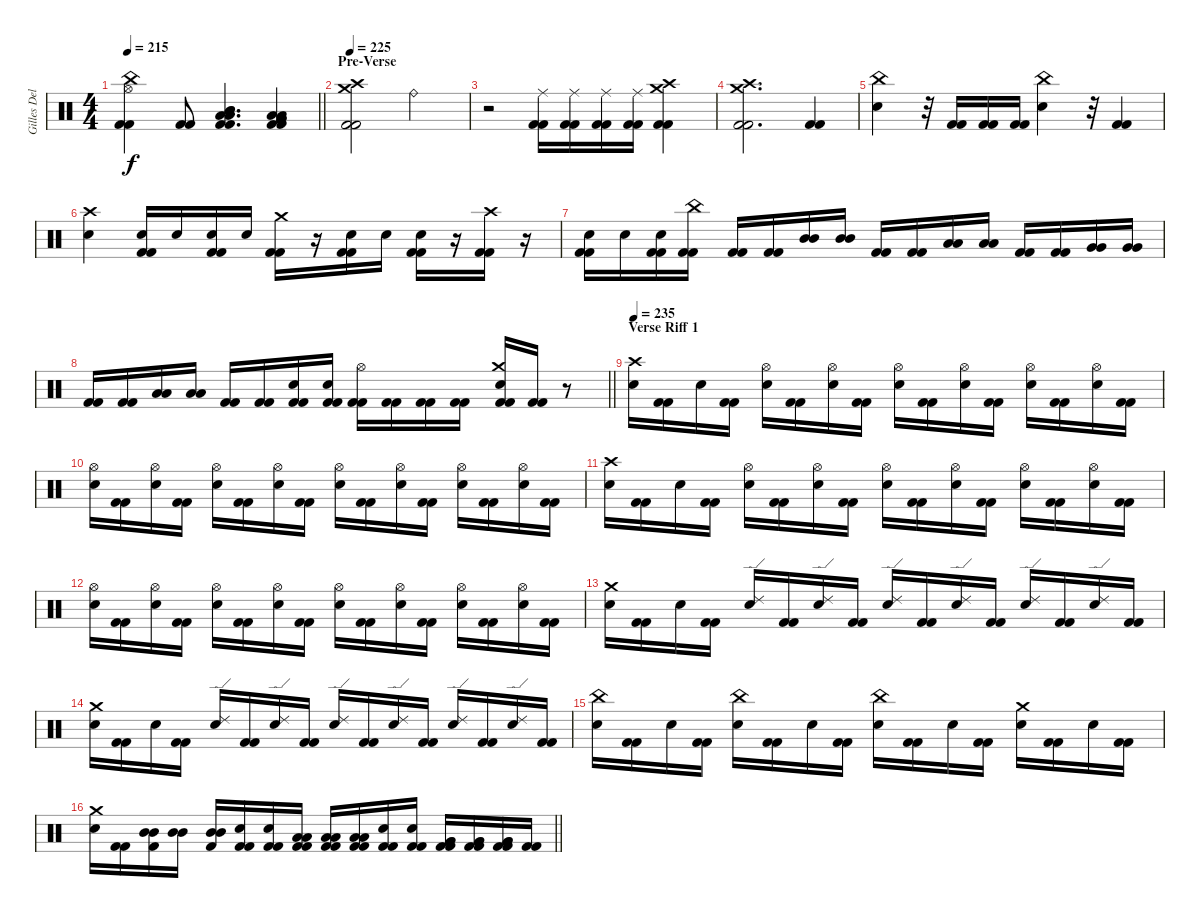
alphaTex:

\track ("Gilles Delecroix" "Gilles Del") {instrument percussion}
\staff {score}
\articulation defaults
\ts (4 4)
\tempo 215
\clef neutral
\barLineRight lightlight
\ks c
("China (hit)" "Hi-Hat (open)" "Kick (hit) 2" "Kick (hit) 2").4{dy f} ("Kick (hit) 2" "Kick (hit) 2").8 ("Low Tom (hit)" "Low Tom (hit)" "Mid Tom (hit)" "Mid Tom (hit)" "Kick (hit) 2" "Kick (hit) 2").4{d} ("Very Low Tom (hit)" "Very Low Tom (hit)" "Low Tom (hit)" "Low Tom (hit)" "Kick (hit) 2" "Kick (hit) 2").4 |
\section ("" "Pre-Verse")
\tempo 225
("Crash high (hit)" "Crash medium (hit)" "Kick (hit) 2" "Kick (hit) 2").2 "Ride (bell)".2 |
r.2 ("Ride (middle)" "Kick (hit) 2" "Kick (hit) 2").16 ("Ride (middle)" "Kick (hit) 2" "Kick (hit) 2").16 ("Ride (middle)" "Kick (hit) 2" "Kick (hit) 2").16 ("Ride (middle)" "Kick (hit) 2" "Kick (hit) 2").16 ("Crash high (hit)" "Crash medium (hit)" "Kick (hit) 2" "Kick (hit) 2").4 |
("Crash high (hit)" "Crash medium (hit)" "Kick (hit) 2" "Kick (hit) 2").2{d} ("Kick (hit) 2" "Kick (hit) 2").4 |
("China (hit)" "Electric Snare (hit)").4 r.32 ("Kick (hit) 2" "Kick (hit) 2").16 ("Kick (hit) 2" "Kick (hit) 2").16 ("Kick (hit) 2" "Kick (hit) 2").16 ("China (hit)" "Electric Snare (hit)").4 r.32 ("Kick (hit) 2" "Kick (hit) 2").4 |
("Crash high (hit)" "Electric Snare (hit)").4 ("Kick (hit) 2" "Electric Snare (hit)" "Kick (hit) 2").16 "Electric Snare (hit)".16 ("Kick (hit) 2" "Electric Snare (hit)" "Kick (hit) 2").16 "Electric Snare (hit)".16 ("Crash medium (hit)" "Kick (hit) 2" "Kick (hit) 2").16 r.16 ("Kick (hit) 2" "Electric Snare (hit)" "Kick (hit) 2").16 "Electric Snare (hit)".16 ("Kick (hit) 2" "Electric Snare (hit)" "Kick (hit) 2").16 r.16 ("Crash high (hit)" "Kick (hit) 2" "Kick (hit) 2").16 r.16 |
("Kick (hit) 2" "Electric Snare (hit)" "Kick (hit) 2").16 "Electric Snare (hit)".16 ("Kick (hit) 2" "Electric Snare (hit)" "Kick (hit) 2").16 ("China (hit)" "Kick (hit) 2" "Kick (hit) 2").16 ("Kick (hit) 2" "Kick (hit) 2").16 ("Kick (hit) 2" "Kick (hit) 2").16 ("Mid Tom (hit)" "Mid Tom (hit)").16 ("Mid Tom (hit)" "Mid Tom (hit)").16 ("Kick (hit) 2" "Kick (hit) 2").16 ("Kick (hit) 2" "Kick (hit) 2").16 ("Low Tom (hit)" "Low Tom (hit)").16 ("Low Tom (hit)" "Low Tom (hit)").16 ("Kick (hit) 2" "Kick (hit) 2").16 ("Kick (hit) 2" "Kick (hit) 2").16 ("Very Low Tom (hit)" "Very Low Tom (hit)").16 ("Very Low Tom (hit)" "Very Low Tom (hit)").16 |
\barLineRight lightlight
("Kick (hit) 2" "Kick (hit) 2").16 ("Kick (hit) 2" "Kick (hit) 2").16 ("Low Floor Tom (hit)" "Low Floor Tom (hit)").16 ("Low Floor Tom (hit)" "Low Floor Tom (hit)").16 ("Kick (hit) 2" "Kick (hit) 2").16 ("Kick (hit) 2" "Kick (hit) 2").16 ("Electric Snare (hit)" "Kick (hit) 2" "Kick (hit) 2").16 ("Electric Snare (hit)" "Kick (hit) 2" "Kick (hit) 2").16 ("Hi-Hat (open)" "Kick (hit) 2" "Kick (hit) 2").16 ("Kick (hit) 2" "Kick (hit) 2").16 ("Kick (hit) 2" "Kick (hit) 2").16 ("Kick (hit) 2" "Kick (hit) 2").16 ("Crash medium (hit)" "Electric Snare (hit)" "Kick (hit) 2" "Kick (hit) 2").16 ("Kick (hit) 2" "Kick (hit) 2").16 r.8 |
\section ("" "Verse Riff 1")
\tempo 235
("Crash high (hit)" "Electric Snare (hit)").16 ("Kick (hit) 2" "Kick (hit) 2").16 "Electric Snare (hit)".16 ("Kick (hit) 2" "Kick (hit) 2").16 ("Hi-Hat (open)" "Electric Snare (hit)").16 ("Kick (hit) 2" "Kick (hit) 2").16 ("Hi-Hat (open)" "Electric Snare (hit)").16 ("Kick (hit) 2" "Kick (hit) 2").16 ("Hi-Hat (open)" "Electric Snare (hit)").16 ("Kick (hit) 2" "Kick (hit) 2").16 ("Hi-Hat (open)" "Electric Snare (hit)").16 ("Kick (hit) 2" "Kick (hit) 2").16 ("Hi-Hat (open)" "Electric Snare (hit)").16 ("Kick (hit) 2" "Kick (hit) 2").16 ("Hi-Hat (open)" "Electric Snare (hit)").16 ("Kick (hit) 2" "Kick (hit) 2").16 |
("Hi-Hat (open)" "Electric Snare (hit)").16 ("Kick (hit) 2" "Kick (hit) 2").16 ("Hi-Hat (open)" "Electric Snare (hit)").16 ("Kick (hit) 2" "Kick (hit) 2").16 ("Hi-Hat (open)" "Electric Snare (hit)").16 ("Kick (hit) 2" "Kick (hit) 2").16 ("Hi-Hat (open)" "Electric Snare (hit)").16 ("Kick (hit) 2" "Kick (hit) 2").16 ("Hi-Hat (open)" "Electric Snare (hit)").16 ("Kick (hit) 2" "Kick (hit) 2").16 ("Hi-Hat (open)" "Electric Snare (hit)").16 ("Kick (hit) 2" "Kick (hit) 2").16 ("Hi-Hat (open)" "Electric Snare (hit)").16 ("Kick (hit) 2" "Kick (hit) 2").16 ("Hi-Hat (open)" "Electric Snare (hit)").16 ("Kick (hit) 2" "Kick (hit) 2").16 |
("Crash high (hit)" "Electric Snare (hit)").16 ("Kick (hit) 2" "Kick (hit) 2").16 "Electric Snare (hit)".16 ("Kick (hit) 2" "Kick (hit) 2").16 ("Hi-Hat (open)" "Electric Snare (hit)").16 ("Kick (hit) 2" "Kick (hit) 2").16 ("Hi-Hat (open)" "Electric Snare (hit)").16 ("Kick (hit) 2" "Kick (hit) 2").16 ("Hi-Hat (open)" "Electric Snare (hit)").16 ("Kick (hit) 2" "Kick (hit) 2").16 ("Hi-Hat (open)" "Electric Snare (hit)").16 ("Kick (hit) 2" "Kick (hit) 2").16 ("Hi-Hat (open)" "Electric Snare (hit)").16 ("Kick (hit) 2" "Kick (hit) 2").16 ("Hi-Hat (open)" "Electric Snare (hit)").16 ("Kick (hit) 2" "Kick (hit) 2").16 |
("Hi-Hat (open)" "Electric Snare (hit)").16 ("Kick (hit) 2" "Kick (hit) 2").16 ("Hi-Hat (open)" "Electric Snare (hit)").16 ("Kick (hit) 2" "Kick (hit) 2").16 ("Hi-Hat (open)" "Electric Snare (hit)").16 ("Kick (hit) 2" "Kick (hit) 2").16 ("Hi-Hat (open)" "Electric Snare (hit)").16 ("Kick (hit) 2" "Kick (hit) 2").16 ("Hi-Hat (open)" "Electric Snare (hit)").16 ("Kick (hit) 2" "Kick (hit) 2").16 ("Hi-Hat (open)" "Electric Snare (hit)").16 ("Kick (hit) 2" "Kick (hit) 2").16 ("Hi-Hat (open)" "Electric Snare (hit)").16 ("Kick (hit) 2" "Kick (hit) 2").16 ("Hi-Hat (open)" "Electric Snare (hit)").16 ("Kick (hit) 2" "Kick (hit) 2").16 |
("Crash medium (hit)" "Electric Snare (hit)").16 ("Kick (hit) 2" "Kick (hit) 2").16 "Electric Snare (hit)".16 ("Kick (hit) 2" "Kick (hit) 2").16 ("Ride (edge) 2" "Electric Snare (hit)").16 ("Kick (hit) 2" "Kick (hit) 2").16 ("Ride (edge) 2" "Electric Snare (hit)").16 ("Kick (hit) 2" "Kick (hit) 2").16 ("Ride (edge) 2" "Electric Snare (hit)").16 ("Kick (hit) 2" "Kick (hit) 2").16 ("Ride (edge) 2" "Electric Snare (hit)").16 ("Kick (hit) 2" "Kick (hit) 2").16 ("Ride (edge) 2" "Electric Snare (hit)").16 ("Kick (hit) 2" "Kick (hit) 2").16 ("Ride (edge) 2" "Electric Snare (hit)").16 ("Kick (hit) 2" "Kick (hit) 2").16 |
("Crash medium (hit)" "Electric Snare (hit)").16 ("Kick (hit) 2" "Kick (hit) 2").16 "Electric Snare (hit)".16 ("Kick (hit) 2" "Kick (hit) 2").16 ("Ride (edge) 2" "Electric Snare (hit)").16 ("Kick (hit) 2" "Kick (hit) 2").16 ("Ride (edge) 2" "Electric Snare (hit)").16 ("Kick (hit) 2" "Kick (hit) 2").16 ("Ride (edge) 2" "Electric Snare (hit)").16 ("Kick (hit) 2" "Kick (hit) 2").16 ("Ride (edge) 2" "Electric Snare (hit)").16 ("Kick (hit) 2" "Kick (hit) 2").16 ("Ride (edge) 2" "Electric Snare (hit)").16 ("Kick (hit) 2" "Kick (hit) 2").16 ("Ride (edge) 2" "Electric Snare (hit)").16 ("Kick (hit) 2" "Kick (hit) 2").16 |
("China (hit)" "Electric Snare (hit)").16 ("Kick (hit) 2" "Kick (hit) 2").16 "Electric Snare (hit)".16 ("Kick (hit) 2" "Kick (hit) 2").16 ("China (hit)" "Electric Snare (hit)").16 ("Kick (hit) 2" "Kick (hit) 2").16 "Electric Snare (hit)".16 ("Kick (hit) 2" "Kick (hit) 2").16 ("China (hit)" "Electric Snare (hit)").16 ("Kick (hit) 2" "Kick (hit) 2").16 "Electric Snare (hit)".16 ("Kick (hit) 2" "Kick (hit) 2").16 ("Crash medium (hit)" "Electric Snare (hit)").16 ("Kick (hit) 2" "Kick (hit) 2").16 "Electric Snare (hit)".16 ("Kick (hit) 2" "Kick (hit) 2").16 |
\barLineRight lightlight
("Crash medium (hit)" "Electric Snare (hit)").16 ("Kick (hit) 2" "Kick (hit) 2").16 ("Mid Tom (hit)" "Mid Tom (hit)" "Kick (hit) 2").16 ("Mid Tom (hit)" "Mid Tom (hit)").16 ("Mid Tom (hit)" "Mid Tom (hit)" "Kick (hit) 2").16 ("Electric Snare (hit)" "Kick (hit) 2" "Kick (hit) 2").16 ("Electric Snare (hit)" "Kick (hit) 2" "Kick (hit) 2").16 ("Low Tom (hit)" "Low Tom (hit)" "Kick (hit) 2" "Kick (hit) 2").16 ("Low Tom (hit)" "Low Tom (hit)" "Kick (hit) 2" "Kick (hit) 2").16 ("Low Tom (hit)" "Low Tom (hit)" "Kick (hit) 2" "Kick (hit) 2").16 ("Electric Snare (hit)" "Kick (hit) 2" "Kick (hit) 2").16 ("Electric Snare (hit)" "Kick (hit) 2" "Kick (hit) 2").16 ("Very Low Tom (hit)" "Very Low Tom (hit)" "Kick (hit) 2" "Kick (hit) 2").16 ("Very Low Tom (hit)" "Very Low Tom (hit)" "Kick (hit) 2" "Kick (hit) 2").16 ("Very Low Tom (hit)" "Very Low Tom (hit)" "Kick (hit) 2" "Kick (hit) 2").16 ("Kick (hit) 2" "Kick (hit) 2").16
